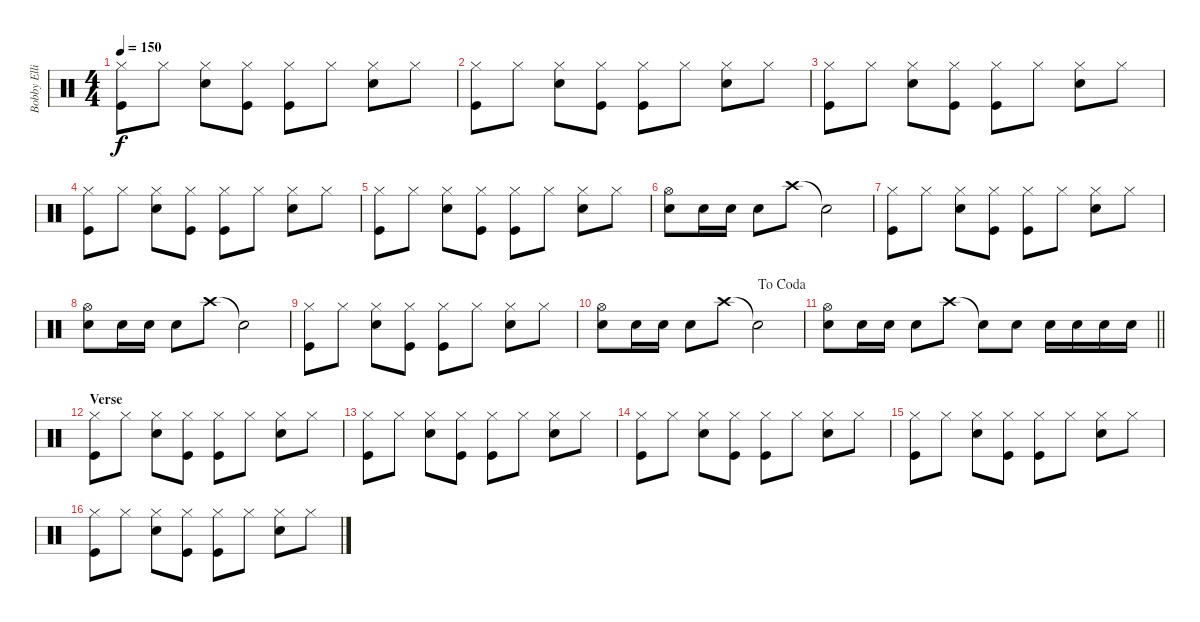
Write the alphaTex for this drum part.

\track ("Bobby Elliott" "Bobby Elli") {instrument percussion}
\staff {score}
\articulation defaults
\ts (4 4)
\tempo 150
\clef neutral
\ks c
("Hi-Hat (closed)" "Kick (hit)").8{dy f} "Hi-Hat (closed)".8 ("Hi-Hat (closed)" "Snare (hit) 2").8 ("Hi-Hat (closed)" "Kick (hit)").8 ("Hi-Hat (closed)" "Kick (hit)").8 "Hi-Hat (closed)".8 ("Hi-Hat (closed)" "Snare (hit) 2").8 "Hi-Hat (closed)".8 |
("Hi-Hat (closed)" "Kick (hit)").8 "Hi-Hat (closed)".8 ("Hi-Hat (closed)" "Snare (hit) 2").8 ("Hi-Hat (closed)" "Kick (hit)").8 ("Hi-Hat (closed)" "Kick (hit)").8 "Hi-Hat (closed)".8 ("Hi-Hat (closed)" "Snare (hit) 2").8 "Hi-Hat (closed)".8 |
("Hi-Hat (closed)" "Kick (hit)").8 "Hi-Hat (closed)".8 ("Hi-Hat (closed)" "Snare (hit) 2").8 ("Hi-Hat (closed)" "Kick (hit)").8 ("Hi-Hat (closed)" "Kick (hit)").8 "Hi-Hat (closed)".8 ("Hi-Hat (closed)" "Snare (hit) 2").8 "Hi-Hat (closed)".8 |
("Hi-Hat (closed)" "Kick (hit)").8 "Hi-Hat (closed)".8 ("Hi-Hat (closed)" "Snare (hit) 2").8 ("Hi-Hat (closed)" "Kick (hit)").8 ("Hi-Hat (closed)" "Kick (hit)").8 "Hi-Hat (closed)".8 ("Hi-Hat (closed)" "Snare (hit) 2").8 "Hi-Hat (closed)".8 |
("Hi-Hat (closed)" "Kick (hit)").8 "Hi-Hat (closed)".8 ("Hi-Hat (closed)" "Snare (hit) 2").8 ("Hi-Hat (closed)" "Kick (hit)").8 ("Hi-Hat (closed)" "Kick (hit)").8 "Hi-Hat (closed)".8 ("Hi-Hat (closed)" "Snare (hit) 2").8 "Hi-Hat (closed)".8 |
("Hi-Hat (open)" "Snare (hit) 2").8 "Snare (hit) 2".16 "Snare (hit) 2".16 "Snare (hit) 2".8 "Crash high (hit)".8 "Snare (hit)"{t}.2 |
("Hi-Hat (closed)" "Kick (hit)").8 "Hi-Hat (closed)".8 ("Hi-Hat (closed)" "Snare (hit) 2").8 ("Hi-Hat (closed)" "Kick (hit)").8 ("Hi-Hat (closed)" "Kick (hit)").8 "Hi-Hat (closed)".8 ("Hi-Hat (closed)" "Snare (hit) 2").8 "Hi-Hat (closed)".8 |
("Hi-Hat (open)" "Snare (hit) 2").8 "Snare (hit) 2".16 "Snare (hit) 2".16 "Snare (hit) 2".8 "Crash high (hit)".8 "Snare (hit)"{t}.2 |
("Hi-Hat (closed)" "Kick (hit)").8 "Hi-Hat (closed)".8 ("Hi-Hat (closed)" "Snare (hit) 2").8 ("Hi-Hat (closed)" "Kick (hit)").8 ("Hi-Hat (closed)" "Kick (hit)").8 "Hi-Hat (closed)".8 ("Hi-Hat (closed)" "Snare (hit) 2").8 "Hi-Hat (closed)".8 |
\jump dacoda
("Hi-Hat (open)" "Snare (hit) 2").8 "Snare (hit) 2".16 "Snare (hit) 2".16 "Snare (hit) 2".8 "Crash high (hit)".8 "Snare (hit)"{t}.2 |
\barLineRight lightlight
("Hi-Hat (open)" "Snare (hit) 2").8 "Snare (hit) 2".16 "Snare (hit) 2".16 "Snare (hit) 2".8 "Crash high (hit)".8 "Snare (hit)"{t}.8 "Snare (hit) 2".8 "Snare (hit) 2".16 "Snare (hit) 2".16 "Snare (hit) 2".16 "Snare (hit) 2".16 |
\section ("" "Verse")
("Hi-Hat (closed)" "Kick (hit)").8 "Hi-Hat (closed)".8 ("Hi-Hat (closed)" "Snare (hit) 2").8 ("Hi-Hat (closed)" "Kick (hit)").8 ("Hi-Hat (closed)" "Kick (hit)").8 "Hi-Hat (closed)".8 ("Hi-Hat (closed)" "Snare (hit) 2").8 "Hi-Hat (closed)".8 |
("Hi-Hat (closed)" "Kick (hit)").8 "Hi-Hat (closed)".8 ("Hi-Hat (closed)" "Snare (hit) 2").8 ("Hi-Hat (closed)" "Kick (hit)").8 ("Hi-Hat (closed)" "Kick (hit)").8 "Hi-Hat (closed)".8 ("Hi-Hat (closed)" "Snare (hit) 2").8 "Hi-Hat (closed)".8 |
("Hi-Hat (closed)" "Kick (hit)").8 "Hi-Hat (closed)".8 ("Hi-Hat (closed)" "Snare (hit) 2").8 ("Hi-Hat (closed)" "Kick (hit)").8 ("Hi-Hat (closed)" "Kick (hit)").8 "Hi-Hat (closed)".8 ("Hi-Hat (closed)" "Snare (hit) 2").8 "Hi-Hat (closed)".8 |
("Hi-Hat (closed)" "Kick (hit)").8 "Hi-Hat (closed)".8 ("Hi-Hat (closed)" "Snare (hit) 2").8 ("Hi-Hat (closed)" "Kick (hit)").8 ("Hi-Hat (closed)" "Kick (hit)").8 "Hi-Hat (closed)".8 ("Hi-Hat (closed)" "Snare (hit) 2").8 "Hi-Hat (closed)".8 |
("Hi-Hat (closed)" "Kick (hit)").8 "Hi-Hat (closed)".8 ("Hi-Hat (closed)" "Snare (hit) 2").8 ("Hi-Hat (closed)" "Kick (hit)").8 ("Hi-Hat (closed)" "Kick (hit)").8 "Hi-Hat (closed)".8 ("Hi-Hat (closed)" "Snare (hit) 2").8 "Hi-Hat (closed)".8
